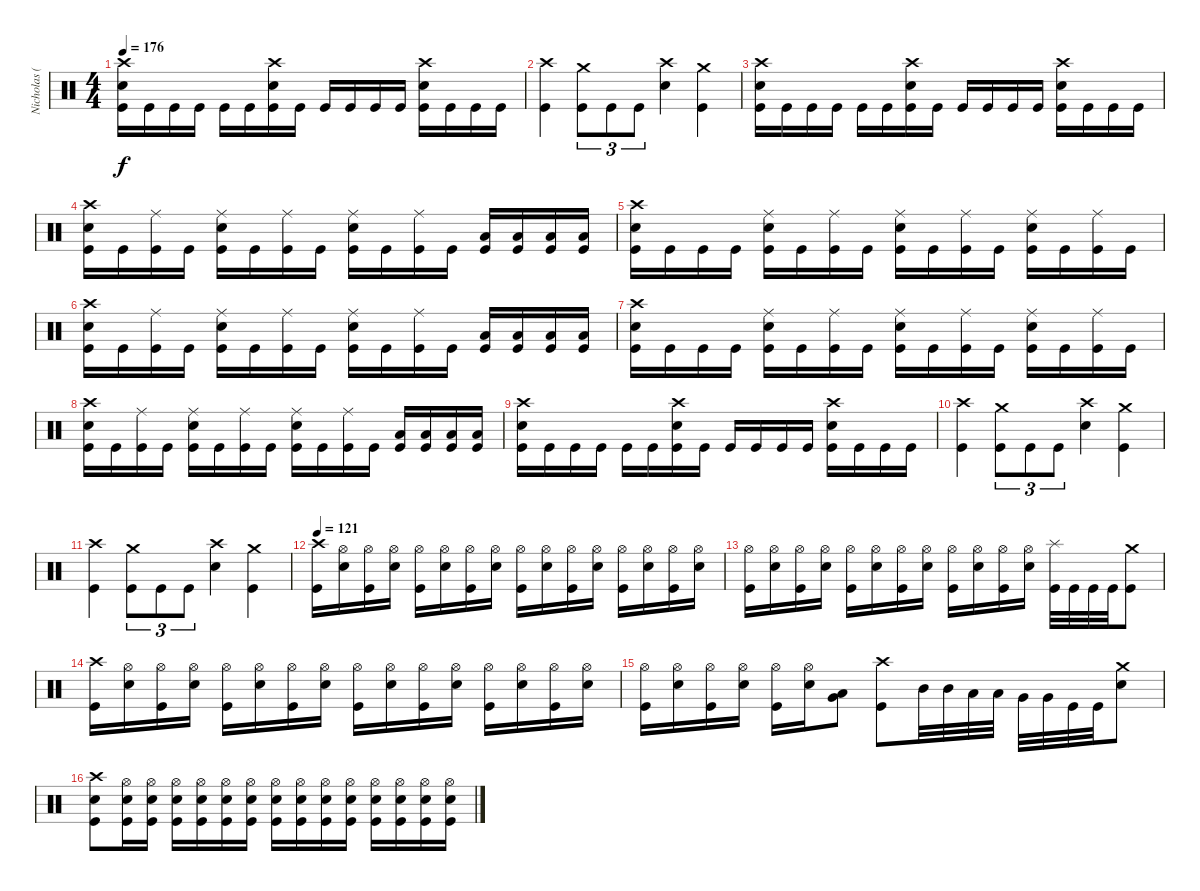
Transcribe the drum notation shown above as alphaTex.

\track ("Nicholas (Drums)" "Nicholas (") {instrument percussion}
\staff {score}
\articulation defaults
\ts (4 4)
\tempo 176
\clef neutral
\ks c
("Crash high (hit)" "Electric Snare (hit)" "Kick (hit)").16{dy f} "Kick (hit)".16 "Kick (hit)".16 "Kick (hit)".16 "Kick (hit)".16 "Kick (hit)".16 ("Crash high (hit)" "Electric Snare (hit)" "Kick (hit)").16 "Kick (hit)".16 "Kick (hit)".16 "Kick (hit)".16 "Kick (hit)".16 "Kick (hit)".16 ("Crash high (hit)" "Electric Snare (hit)" "Kick (hit)").16 "Kick (hit)".16 "Kick (hit)".16 "Kick (hit)".16 |
("Crash high (hit)" "Kick (hit)").4 ("Crash medium (hit)" "Kick (hit)").8{tu (3 2)} "Kick (hit)".8{tu (3 2)} "Kick (hit)".8{tu (3 2)} ("Crash high (hit)" "Electric Snare (hit)").4 ("Crash medium (hit)" "Kick (hit)").4 |
("Crash high (hit)" "Electric Snare (hit)" "Kick (hit)").16 "Kick (hit)".16 "Kick (hit)".16 "Kick (hit)".16 "Kick (hit)".16 "Kick (hit)".16 ("Crash high (hit)" "Electric Snare (hit)" "Kick (hit)").16 "Kick (hit)".16 "Kick (hit)".16 "Kick (hit)".16 "Kick (hit)".16 "Kick (hit)".16 ("Crash high (hit)" "Electric Snare (hit)" "Kick (hit)").16 "Kick (hit)".16 "Kick (hit)".16 "Kick (hit)".16 |
("Crash high (hit)" "Electric Snare (hit)" "Kick (hit)").16 "Kick (hit)".16 ("Ride (middle)" "Kick (hit)").16 "Kick (hit)".16 ("Ride (middle)" "Electric Snare (hit)" "Kick (hit)").16 "Kick (hit)".16 ("Ride (middle)" "Kick (hit)").16 "Kick (hit)".16 ("Ride (middle)" "Electric Snare (hit)" "Kick (hit)").16 "Kick (hit)".16 ("Ride (middle)" "Kick (hit)").16 "Kick (hit)".16 ("Low Floor Tom (hit)" "Kick (hit)").16 ("Low Floor Tom (hit)" "Kick (hit)").16 ("Low Floor Tom (hit)" "Kick (hit)").16 ("Low Floor Tom (hit)" "Kick (hit)").16 |
("Crash high (hit)" "Electric Snare (hit)" "Kick (hit)").16 "Kick (hit)".16 "Kick (hit)".16 "Kick (hit)".16 ("Ride (middle)" "Electric Snare (hit)" "Kick (hit)").16 "Kick (hit)".16 ("Ride (middle)" "Kick (hit)").16 "Kick (hit)".16 ("Ride (middle)" "Electric Snare (hit)" "Kick (hit)").16 "Kick (hit)".16 ("Ride (middle)" "Kick (hit)").16 "Kick (hit)".16 ("Ride (middle)" "Electric Snare (hit)" "Kick (hit)").16 "Kick (hit)".16 ("Ride (middle)" "Kick (hit)").16 "Kick (hit)".16 |
("Crash high (hit)" "Electric Snare (hit)" "Kick (hit)").16 "Kick (hit)".16 ("Ride (middle)" "Kick (hit)").16 "Kick (hit)".16 ("Ride (middle)" "Electric Snare (hit)" "Kick (hit)").16 "Kick (hit)".16 ("Ride (middle)" "Kick (hit)").16 "Kick (hit)".16 ("Ride (middle)" "Electric Snare (hit)" "Kick (hit)").16 "Kick (hit)".16 ("Ride (middle)" "Kick (hit)").16 "Kick (hit)".16 ("Low Floor Tom (hit)" "Kick (hit)").16 ("Low Floor Tom (hit)" "Kick (hit)").16 ("Low Floor Tom (hit)" "Kick (hit)").16 ("Low Floor Tom (hit)" "Kick (hit)").16 |
("Crash high (hit)" "Electric Snare (hit)" "Kick (hit)").16 "Kick (hit)".16 "Kick (hit)".16 "Kick (hit)".16 ("Ride (middle)" "Electric Snare (hit)" "Kick (hit)").16 "Kick (hit)".16 ("Ride (middle)" "Kick (hit)").16 "Kick (hit)".16 ("Ride (middle)" "Electric Snare (hit)" "Kick (hit)").16 "Kick (hit)".16 ("Ride (middle)" "Kick (hit)").16 "Kick (hit)".16 ("Ride (middle)" "Electric Snare (hit)" "Kick (hit)").16 "Kick (hit)".16 ("Ride (middle)" "Kick (hit)").16 "Kick (hit)".16 |
("Crash high (hit)" "Electric Snare (hit)" "Kick (hit)").16 "Kick (hit)".16 ("Ride (middle)" "Kick (hit)").16 "Kick (hit)".16 ("Ride (middle)" "Electric Snare (hit)" "Kick (hit)").16 "Kick (hit)".16 ("Ride (middle)" "Kick (hit)").16 "Kick (hit)".16 ("Ride (middle)" "Electric Snare (hit)" "Kick (hit)").16 "Kick (hit)".16 ("Ride (middle)" "Kick (hit)").16 "Kick (hit)".16 ("Low Floor Tom (hit)" "Kick (hit)").16 ("Low Floor Tom (hit)" "Kick (hit)").16 ("Low Floor Tom (hit)" "Kick (hit)").16 ("Low Floor Tom (hit)" "Kick (hit)").16 |
("Crash high (hit)" "Electric Snare (hit)" "Kick (hit)").16 "Kick (hit)".16 "Kick (hit)".16 "Kick (hit)".16 "Kick (hit)".16 "Kick (hit)".16 ("Crash high (hit)" "Electric Snare (hit)" "Kick (hit)").16 "Kick (hit)".16 "Kick (hit)".16 "Kick (hit)".16 "Kick (hit)".16 "Kick (hit)".16 ("Crash high (hit)" "Electric Snare (hit)" "Kick (hit)").16 "Kick (hit)".16 "Kick (hit)".16 "Kick (hit)".16 |
("Crash high (hit)" "Kick (hit)").4 ("Crash medium (hit)" "Kick (hit)").8{tu (3 2)} "Kick (hit)".8{tu (3 2)} "Kick (hit)".8{tu (3 2)} ("Crash high (hit)" "Electric Snare (hit)").4 ("Crash medium (hit)" "Kick (hit)").4 |
("Crash high (hit)" "Kick (hit)").4 ("Crash medium (hit)" "Kick (hit)").8{tu (3 2)} "Kick (hit)".8{tu (3 2)} "Kick (hit)".8{tu (3 2)} ("Crash high (hit)" "Electric Snare (hit)").4 ("Crash medium (hit)" "Kick (hit)").4 |
\tempo 121
("Crash high (hit)" "Kick (hit)").16 ("Hi-Hat (open)" "Electric Snare (hit)").16 ("Hi-Hat (open)" "Kick (hit)").16 ("Hi-Hat (open)" "Electric Snare (hit)").16 ("Hi-Hat (open)" "Kick (hit)").16 ("Hi-Hat (open)" "Electric Snare (hit)").16 ("Hi-Hat (open)" "Kick (hit)").16 ("Hi-Hat (open)" "Electric Snare (hit)").16 ("Hi-Hat (open)" "Kick (hit)").16 ("Hi-Hat (open)" "Electric Snare (hit)").16 ("Hi-Hat (open)" "Kick (hit)").16 ("Hi-Hat (open)" "Electric Snare (hit)").16 ("Hi-Hat (open)" "Kick (hit)").16 ("Hi-Hat (open)" "Electric Snare (hit)").16 ("Hi-Hat (open)" "Kick (hit)").16 ("Hi-Hat (open)" "Electric Snare (hit)").16 |
("Hi-Hat (open)" "Kick (hit)").16 ("Hi-Hat (open)" "Electric Snare (hit)").16 ("Hi-Hat (open)" "Kick (hit)").16 ("Hi-Hat (open)" "Electric Snare (hit)").16 ("Hi-Hat (open)" "Kick (hit)").16 ("Hi-Hat (open)" "Electric Snare (hit)").16 ("Hi-Hat (open)" "Kick (hit)").16 ("Hi-Hat (open)" "Electric Snare (hit)").16 ("Hi-Hat (open)" "Kick (hit)").16 ("Hi-Hat (open)" "Electric Snare (hit)").16 ("Hi-Hat (open)" "Kick (hit)").16 ("Hi-Hat (open)" "Electric Snare (hit)").16 ("Splash (hit)" "Kick (hit)").32 "Kick (hit)".32 "Kick (hit)".32 "Kick (hit)".32 ("Crash medium (hit)" "Kick (hit)").8 |
("Crash high (hit)" "Kick (hit)").16 ("Hi-Hat (open)" "Electric Snare (hit)").16 ("Hi-Hat (open)" "Kick (hit)").16 ("Hi-Hat (open)" "Electric Snare (hit)").16 ("Hi-Hat (open)" "Kick (hit)").16 ("Hi-Hat (open)" "Electric Snare (hit)").16 ("Hi-Hat (open)" "Kick (hit)").16 ("Hi-Hat (open)" "Electric Snare (hit)").16 ("Hi-Hat (open)" "Kick (hit)").16 ("Hi-Hat (open)" "Electric Snare (hit)").16 ("Hi-Hat (open)" "Kick (hit)").16 ("Hi-Hat (open)" "Electric Snare (hit)").16 ("Hi-Hat (open)" "Kick (hit)").16 ("Hi-Hat (open)" "Electric Snare (hit)").16 ("Hi-Hat (open)" "Kick (hit)").16 ("Hi-Hat (open)" "Electric Snare (hit)").16 |
("Hi-Hat (open)" "Kick (hit)").16 ("Hi-Hat (open)" "Electric Snare (hit)").16 ("Hi-Hat (open)" "Kick (hit)").16 ("Hi-Hat (open)" "Electric Snare (hit)").16 ("Hi-Hat (open)" "Kick (hit)").16 ("Hi-Hat (open)" "Electric Snare (hit)").16 ("Low Tom (hit)" "Very Low Tom (hit)").8 ("Crash high (hit)" "Kick (hit)").8 "Mid Tom (hit)".32 "Mid Tom (hit)".32 "Low Tom (hit)".32 "Low Tom (hit)".32 "Very Low Tom (hit)".32 "Very Low Tom (hit)".32 "Kick (hit)".32 "Kick (hit)".32 ("Crash medium (hit)" "Electric Snare (hit)").8 |
("Crash high (hit)" "Electric Snare (hit)" "Kick (hit)").8 ("Hi-Hat (open)" "Electric Snare (hit)" "Kick (hit)").16 ("Hi-Hat (open)" "Electric Snare (hit)" "Kick (hit)").16 ("Hi-Hat (open)" "Electric Snare (hit)" "Kick (hit)").16 ("Hi-Hat (open)" "Electric Snare (hit)" "Kick (hit)").16 ("Hi-Hat (open)" "Electric Snare (hit)" "Kick (hit)").16 ("Hi-Hat (open)" "Electric Snare (hit)" "Kick (hit)").16 ("Hi-Hat (open)" "Electric Snare (hit)" "Kick (hit)").16 ("Hi-Hat (open)" "Electric Snare (hit)" "Kick (hit)").16 ("Hi-Hat (open)" "Electric Snare (hit)" "Kick (hit)").16 ("Hi-Hat (open)" "Electric Snare (hit)" "Kick (hit)").16 ("Hi-Hat (open)" "Electric Snare (hit)" "Kick (hit)").16 ("Hi-Hat (open)" "Electric Snare (hit)" "Kick (hit)").16 ("Hi-Hat (open)" "Electric Snare (hit)" "Kick (hit)").16 ("Hi-Hat (open)" "Electric Snare (hit)" "Kick (hit)").16
